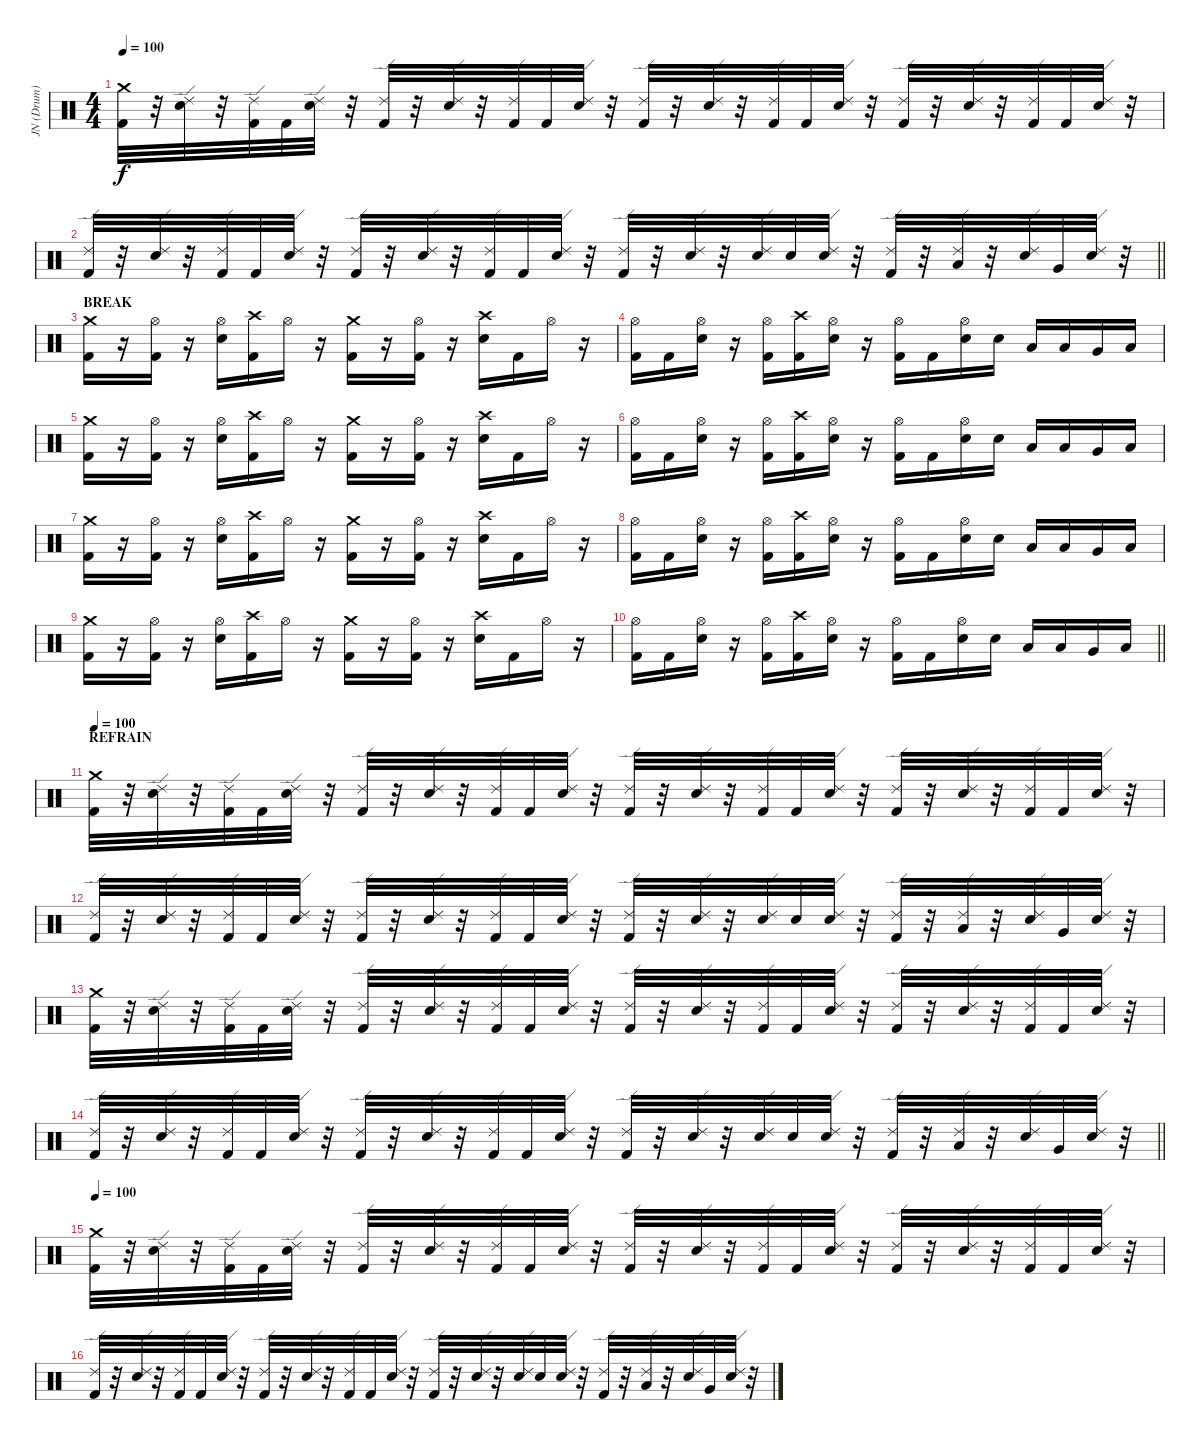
\track ("JN (Drum)" "JN (Drum)") {instrument percussion}
\staff {score}
\articulation defaults
\ts (4 4)
\tempo 100
\clef neutral
\ks c
("Crash medium (hit)" "Kick (hit) 2").32{dy f} r.32 ("Ride (edge) 2" "Electric Snare (hit)").32 r.32 ("Ride (edge) 2" "Kick (hit) 2").32 "Kick (hit) 2".32 ("Ride (edge) 2" "Electric Snare (hit)").32 r.32 ("Ride (edge) 2" "Kick (hit) 2").32 r.32 ("Ride (edge) 2" "Electric Snare (hit)").32 r.32 ("Ride (edge) 2" "Kick (hit) 2").32 "Kick (hit) 2".32 ("Ride (edge) 2" "Electric Snare (hit)").32 r.32 ("Ride (edge) 2" "Kick (hit) 2").32 r.32 ("Ride (edge) 2" "Electric Snare (hit)").32 r.32 ("Ride (edge) 2" "Kick (hit) 2").32 "Kick (hit) 2".32 ("Ride (edge) 2" "Electric Snare (hit)").32 r.32 ("Ride (edge) 2" "Kick (hit) 2").32 r.32 ("Ride (edge) 2" "Electric Snare (hit)").32 r.32 ("Ride (edge) 2" "Kick (hit) 2").32 "Kick (hit) 2".32 ("Ride (edge) 2" "Electric Snare (hit)").32 r.32 |
\barLineRight lightlight
("Ride (edge) 2" "Kick (hit) 2").32 r.32 ("Ride (edge) 2" "Electric Snare (hit)").32 r.32 ("Ride (edge) 2" "Kick (hit) 2").32 "Kick (hit) 2".32 ("Ride (edge) 2" "Electric Snare (hit)").32 r.32 ("Ride (edge) 2" "Kick (hit) 2").32 r.32 ("Ride (edge) 2" "Electric Snare (hit)").32 r.32 ("Ride (edge) 2" "Kick (hit) 2").32 "Kick (hit) 2".32 ("Ride (edge) 2" "Electric Snare (hit)").32 r.32 ("Ride (edge) 2" "Kick (hit) 2").32 r.32 ("Ride (edge) 2" "Electric Snare (hit)").32 r.32 ("Ride (edge) 2" "Electric Snare (hit)").32 "Electric Snare (hit)".32 ("Ride (edge) 2" "Electric Snare (hit)").32 r.32 ("Ride (edge) 2" "Kick (hit) 2").32 r.32 ("Ride (edge) 2" "Low Tom (hit)").32 r.32 ("Ride (edge) 2" "Electric Snare (hit)").32 "Very Low Tom (hit)".32 ("Ride (edge) 2" "Electric Snare (hit)").32 r.32 |
\section ("" "BREAK")
("Crash medium (hit)" "Kick (hit) 2").16 r.16 ("Hi-Hat (open)" "Kick (hit) 2").16 r.16 ("Hi-Hat (open)" "Electric Snare (hit)").16 ("Crash high (hit)" "Kick (hit) 2").16 "Hi-Hat (open)".16 r.16 ("Crash medium (hit)" "Kick (hit) 2").16 r.16 ("Hi-Hat (open)" "Kick (hit) 2").16 r.16 ("Crash high (hit)" "Electric Snare (hit)").16 "Kick (hit) 2".16 "Hi-Hat (open)".16 r.16 |
("Hi-Hat (open)" "Kick (hit) 2").16 "Kick (hit) 2".16 ("Hi-Hat (open)" "Electric Snare (hit)").16 r.16 ("Hi-Hat (open)" "Kick (hit) 2").16 ("Crash high (hit)" "Kick (hit) 2").16 ("Hi-Hat (open)" "Electric Snare (hit)").16 r.16 ("Hi-Hat (open)" "Kick (hit) 2").16 "Kick (hit) 2".16 ("Hi-Hat (open)" "Electric Snare (hit)").16 "Electric Snare (hit)".16 "Low Tom (hit)".16 "Low Tom (hit)".16 "Very Low Tom (hit)".16 "Low Floor Tom (hit)".16 |
("Crash medium (hit)" "Kick (hit) 2").16 r.16 ("Hi-Hat (open)" "Kick (hit) 2").16 r.16 ("Hi-Hat (open)" "Electric Snare (hit)").16 ("Crash high (hit)" "Kick (hit) 2").16 "Hi-Hat (open)".16 r.16 ("Crash medium (hit)" "Kick (hit) 2").16 r.16 ("Hi-Hat (open)" "Kick (hit) 2").16 r.16 ("Crash high (hit)" "Electric Snare (hit)").16 "Kick (hit) 2".16 "Hi-Hat (open)".16 r.16 |
("Hi-Hat (open)" "Kick (hit) 2").16 "Kick (hit) 2".16 ("Hi-Hat (open)" "Electric Snare (hit)").16 r.16 ("Hi-Hat (open)" "Kick (hit) 2").16 ("Crash high (hit)" "Kick (hit) 2").16 ("Hi-Hat (open)" "Electric Snare (hit)").16 r.16 ("Hi-Hat (open)" "Kick (hit) 2").16 "Kick (hit) 2".16 ("Hi-Hat (open)" "Electric Snare (hit)").16 "Electric Snare (hit)".16 "Low Tom (hit)".16 "Low Tom (hit)".16 "Very Low Tom (hit)".16 "Low Floor Tom (hit)".16 |
("Crash medium (hit)" "Kick (hit) 2").16 r.16 ("Hi-Hat (open)" "Kick (hit) 2").16 r.16 ("Hi-Hat (open)" "Electric Snare (hit)").16 ("Crash high (hit)" "Kick (hit) 2").16 "Hi-Hat (open)".16 r.16 ("Crash medium (hit)" "Kick (hit) 2").16 r.16 ("Hi-Hat (open)" "Kick (hit) 2").16 r.16 ("Crash high (hit)" "Electric Snare (hit)").16 "Kick (hit) 2".16 "Hi-Hat (open)".16 r.16 |
("Hi-Hat (open)" "Kick (hit) 2").16 "Kick (hit) 2".16 ("Hi-Hat (open)" "Electric Snare (hit)").16 r.16 ("Hi-Hat (open)" "Kick (hit) 2").16 ("Crash high (hit)" "Kick (hit) 2").16 ("Hi-Hat (open)" "Electric Snare (hit)").16 r.16 ("Hi-Hat (open)" "Kick (hit) 2").16 "Kick (hit) 2".16 ("Hi-Hat (open)" "Electric Snare (hit)").16 "Electric Snare (hit)".16 "Low Tom (hit)".16 "Low Tom (hit)".16 "Very Low Tom (hit)".16 "Low Floor Tom (hit)".16 |
("Crash medium (hit)" "Kick (hit) 2").16 r.16 ("Hi-Hat (open)" "Kick (hit) 2").16 r.16 ("Hi-Hat (open)" "Electric Snare (hit)").16 ("Crash high (hit)" "Kick (hit) 2").16 "Hi-Hat (open)".16 r.16 ("Crash medium (hit)" "Kick (hit) 2").16 r.16 ("Hi-Hat (open)" "Kick (hit) 2").16 r.16 ("Crash high (hit)" "Electric Snare (hit)").16 "Kick (hit) 2".16 "Hi-Hat (open)".16 r.16 |
\barLineRight lightlight
("Hi-Hat (open)" "Kick (hit) 2").16 "Kick (hit) 2".16 ("Hi-Hat (open)" "Electric Snare (hit)").16 r.16 ("Hi-Hat (open)" "Kick (hit) 2").16 ("Crash high (hit)" "Kick (hit) 2").16 ("Hi-Hat (open)" "Electric Snare (hit)").16 r.16 ("Hi-Hat (open)" "Kick (hit) 2").16 "Kick (hit) 2".16 ("Hi-Hat (open)" "Electric Snare (hit)").16 "Electric Snare (hit)".16 "Low Tom (hit)".16 "Low Tom (hit)".16 "Very Low Tom (hit)".16 "Low Floor Tom (hit)".16 |
\section ("" "REFRAIN")
\tempo 100
("Crash medium (hit)" "Kick (hit) 2").32 r.32 ("Ride (edge) 2" "Electric Snare (hit)").32 r.32 ("Ride (edge) 2" "Kick (hit) 2").32 "Kick (hit) 2".32 ("Ride (edge) 2" "Electric Snare (hit)").32 r.32 ("Ride (edge) 2" "Kick (hit) 2").32 r.32 ("Ride (edge) 2" "Electric Snare (hit)").32 r.32 ("Ride (edge) 2" "Kick (hit) 2").32 "Kick (hit) 2".32 ("Ride (edge) 2" "Electric Snare (hit)").32 r.32 ("Ride (edge) 2" "Kick (hit) 2").32 r.32 ("Ride (edge) 2" "Electric Snare (hit)").32 r.32 ("Ride (edge) 2" "Kick (hit) 2").32 "Kick (hit) 2".32 ("Ride (edge) 2" "Electric Snare (hit)").32 r.32 ("Ride (edge) 2" "Kick (hit) 2").32 r.32 ("Ride (edge) 2" "Electric Snare (hit)").32 r.32 ("Ride (edge) 2" "Kick (hit) 2").32 "Kick (hit) 2".32 ("Ride (edge) 2" "Electric Snare (hit)").32 r.32 |
("Ride (edge) 2" "Kick (hit) 2").32 r.32 ("Ride (edge) 2" "Electric Snare (hit)").32 r.32 ("Ride (edge) 2" "Kick (hit) 2").32 "Kick (hit) 2".32 ("Ride (edge) 2" "Electric Snare (hit)").32 r.32 ("Ride (edge) 2" "Kick (hit) 2").32 r.32 ("Ride (edge) 2" "Electric Snare (hit)").32 r.32 ("Ride (edge) 2" "Kick (hit) 2").32 "Kick (hit) 2".32 ("Ride (edge) 2" "Electric Snare (hit)").32 r.32 ("Ride (edge) 2" "Kick (hit) 2").32 r.32 ("Ride (edge) 2" "Electric Snare (hit)").32 r.32 ("Ride (edge) 2" "Electric Snare (hit)").32 "Electric Snare (hit)".32 ("Ride (edge) 2" "Electric Snare (hit)").32 r.32 ("Ride (edge) 2" "Kick (hit) 2").32 r.32 ("Ride (edge) 2" "Low Tom (hit)").32 r.32 ("Ride (edge) 2" "Electric Snare (hit)").32 "Very Low Tom (hit)".32 ("Ride (edge) 2" "Electric Snare (hit)").32 r.32 |
("Crash medium (hit)" "Kick (hit) 2").32 r.32 ("Ride (edge) 2" "Electric Snare (hit)").32 r.32 ("Ride (edge) 2" "Kick (hit) 2").32 "Kick (hit) 2".32 ("Ride (edge) 2" "Electric Snare (hit)").32 r.32 ("Ride (edge) 2" "Kick (hit) 2").32 r.32 ("Ride (edge) 2" "Electric Snare (hit)").32 r.32 ("Ride (edge) 2" "Kick (hit) 2").32 "Kick (hit) 2".32 ("Ride (edge) 2" "Electric Snare (hit)").32 r.32 ("Ride (edge) 2" "Kick (hit) 2").32 r.32 ("Ride (edge) 2" "Electric Snare (hit)").32 r.32 ("Ride (edge) 2" "Kick (hit) 2").32 "Kick (hit) 2".32 ("Ride (edge) 2" "Electric Snare (hit)").32 r.32 ("Ride (edge) 2" "Kick (hit) 2").32 r.32 ("Ride (edge) 2" "Electric Snare (hit)").32 r.32 ("Ride (edge) 2" "Kick (hit) 2").32 "Kick (hit) 2".32 ("Ride (edge) 2" "Electric Snare (hit)").32 r.32 |
\barLineRight lightlight
("Ride (edge) 2" "Kick (hit) 2").32 r.32 ("Ride (edge) 2" "Electric Snare (hit)").32 r.32 ("Ride (edge) 2" "Kick (hit) 2").32 "Kick (hit) 2".32 ("Ride (edge) 2" "Electric Snare (hit)").32 r.32 ("Ride (edge) 2" "Kick (hit) 2").32 r.32 ("Ride (edge) 2" "Electric Snare (hit)").32 r.32 ("Ride (edge) 2" "Kick (hit) 2").32 "Kick (hit) 2".32 ("Ride (edge) 2" "Electric Snare (hit)").32 r.32 ("Ride (edge) 2" "Kick (hit) 2").32 r.32 ("Ride (edge) 2" "Electric Snare (hit)").32 r.32 ("Ride (edge) 2" "Electric Snare (hit)").32 "Electric Snare (hit)".32 ("Ride (edge) 2" "Electric Snare (hit)").32 r.32 ("Ride (edge) 2" "Kick (hit) 2").32 r.32 ("Ride (edge) 2" "Low Tom (hit)").32 r.32 ("Ride (edge) 2" "Electric Snare (hit)").32 "Very Low Tom (hit)".32 ("Ride (edge) 2" "Electric Snare (hit)").32 r.32 |
\tempo 100
("Crash medium (hit)" "Kick (hit) 2").32 r.32 ("Ride (edge) 2" "Electric Snare (hit)").32 r.32 ("Ride (edge) 2" "Kick (hit) 2").32 "Kick (hit) 2".32 ("Ride (edge) 2" "Electric Snare (hit)").32 r.32 ("Ride (edge) 2" "Kick (hit) 2").32 r.32 ("Ride (edge) 2" "Electric Snare (hit)").32 r.32 ("Ride (edge) 2" "Kick (hit) 2").32 "Kick (hit) 2".32 ("Ride (edge) 2" "Electric Snare (hit)").32 r.32 ("Ride (edge) 2" "Kick (hit) 2").32 r.32 ("Ride (edge) 2" "Electric Snare (hit)").32 r.32 ("Ride (edge) 2" "Kick (hit) 2").32 "Kick (hit) 2".32 ("Ride (edge) 2" "Electric Snare (hit)").32 r.32 ("Ride (edge) 2" "Kick (hit) 2").32 r.32 ("Ride (edge) 2" "Electric Snare (hit)").32 r.32 ("Ride (edge) 2" "Kick (hit) 2").32 "Kick (hit) 2".32 ("Ride (edge) 2" "Electric Snare (hit)").32 r.32 |
("Ride (edge) 2" "Kick (hit) 2").32 r.32 ("Ride (edge) 2" "Electric Snare (hit)").32 r.32 ("Ride (edge) 2" "Kick (hit) 2").32 "Kick (hit) 2".32 ("Ride (edge) 2" "Electric Snare (hit)").32 r.32 ("Ride (edge) 2" "Kick (hit) 2").32 r.32 ("Ride (edge) 2" "Electric Snare (hit)").32 r.32 ("Ride (edge) 2" "Kick (hit) 2").32 "Kick (hit) 2".32 ("Ride (edge) 2" "Electric Snare (hit)").32 r.32 ("Ride (edge) 2" "Kick (hit) 2").32 r.32 ("Ride (edge) 2" "Electric Snare (hit)").32 r.32 ("Ride (edge) 2" "Electric Snare (hit)").32 "Electric Snare (hit)".32 ("Ride (edge) 2" "Electric Snare (hit)").32 r.32 ("Ride (edge) 2" "Kick (hit) 2").32 r.32 ("Ride (edge) 2" "Low Tom (hit)").32 r.32 ("Ride (edge) 2" "Electric Snare (hit)").32 "Very Low Tom (hit)".32 ("Ride (edge) 2" "Electric Snare (hit)").32 r.32
